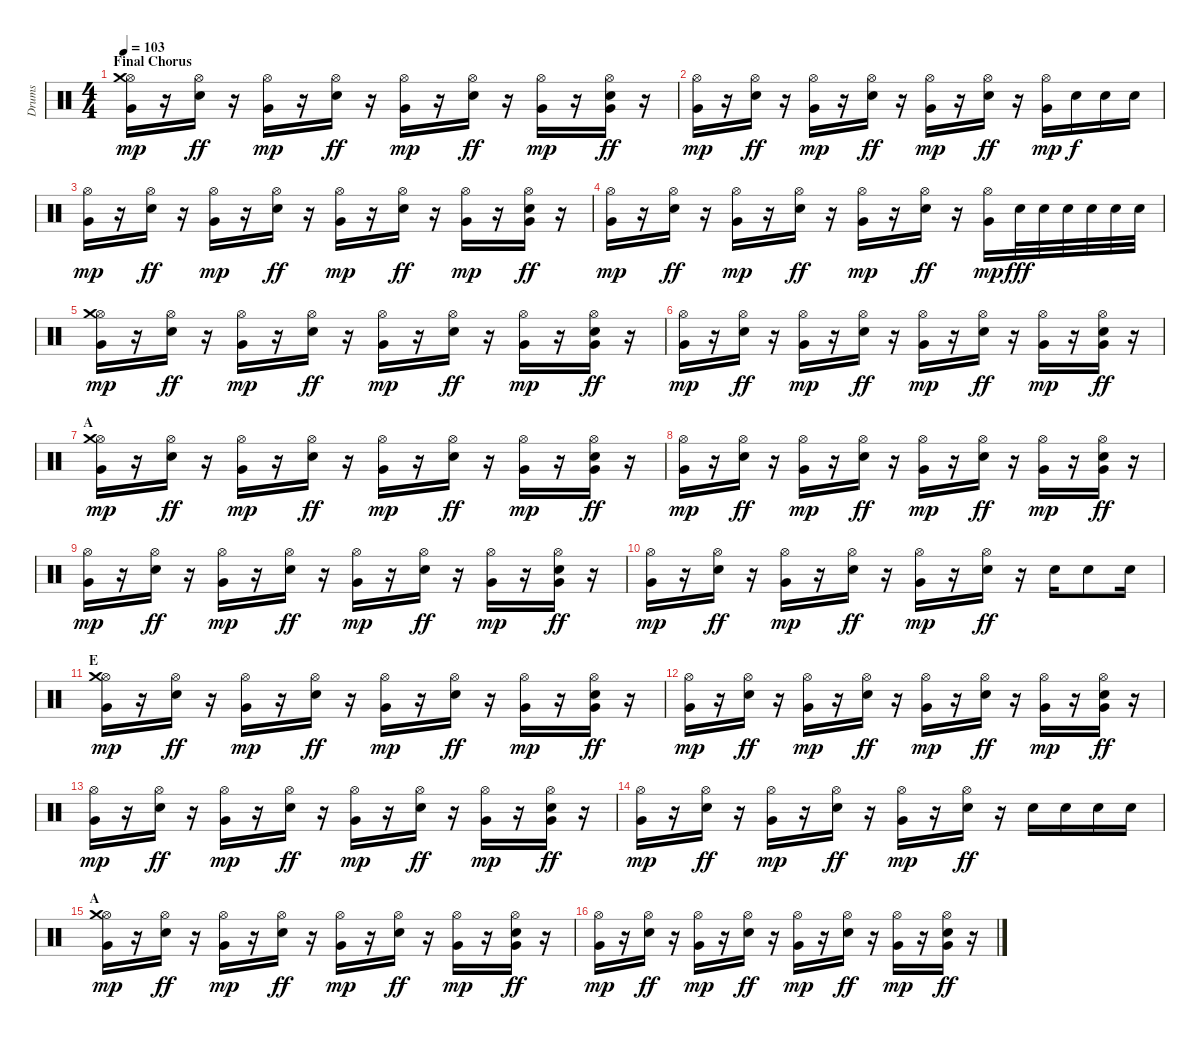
\track ("Drums" "Drums") {instrument percussion}
\staff {score}
\articulation defaults
\ts (4 4)
\section ("" "Final Chorus")
\tempo 103
\clef neutral
\ks c
("Hi-Hat (open)" "Crash medium (hit)" "Very Low Tom (hit)").16{dy mp} r.16 ("Hi-Hat (open)" "Electric Snare (hit)").16{dy ff} r.16 ("Hi-Hat (open)" "Very Low Tom (hit)").16{dy mp} r.16 ("Hi-Hat (open)" "Electric Snare (hit)").16{dy ff} r.16 ("Hi-Hat (open)" "Very Low Tom (hit)").16{dy mp} r.16 ("Hi-Hat (open)" "Electric Snare (hit)").16{dy ff} r.16 ("Hi-Hat (open)" "Very Low Tom (hit)").16{dy mp} r.16 ("Hi-Hat (open)" "Electric Snare (hit)" "Very Low Tom (hit)").16{dy ff} r.16 |
("Hi-Hat (open)" "Very Low Tom (hit)").16{dy mp} r.16 ("Hi-Hat (open)" "Electric Snare (hit)").16{dy ff} r.16 ("Hi-Hat (open)" "Very Low Tom (hit)").16{dy mp} r.16 ("Hi-Hat (open)" "Electric Snare (hit)").16{dy ff} r.16 ("Hi-Hat (open)" "Very Low Tom (hit)").16{dy mp} r.16 ("Hi-Hat (open)" "Electric Snare (hit)").16{dy ff} r.16 ("Hi-Hat (open)" "Very Low Tom (hit)").16{dy mp} "Electric Snare (hit)".16{dy f} "Electric Snare (hit)".16 "Electric Snare (hit)".16 |
("Hi-Hat (open)" "Very Low Tom (hit)").16{dy mp} r.16 ("Hi-Hat (open)" "Electric Snare (hit)").16{dy ff} r.16 ("Hi-Hat (open)" "Very Low Tom (hit)").16{dy mp} r.16 ("Hi-Hat (open)" "Electric Snare (hit)").16{dy ff} r.16 ("Hi-Hat (open)" "Very Low Tom (hit)").16{dy mp} r.16 ("Hi-Hat (open)" "Electric Snare (hit)").16{dy ff} r.16 ("Hi-Hat (open)" "Very Low Tom (hit)").16{dy mp} r.16 ("Hi-Hat (open)" "Electric Snare (hit)" "Very Low Tom (hit)").16{dy ff} r.16 |
("Hi-Hat (open)" "Very Low Tom (hit)").16{dy mp} r.16 ("Hi-Hat (open)" "Electric Snare (hit)").16{dy ff} r.16 ("Hi-Hat (open)" "Very Low Tom (hit)").16{dy mp} r.16 ("Hi-Hat (open)" "Electric Snare (hit)").16{dy ff} r.16 ("Hi-Hat (open)" "Very Low Tom (hit)").16{dy mp} r.16 ("Hi-Hat (open)" "Electric Snare (hit)").16{dy ff} r.16 ("Hi-Hat (open)" "Very Low Tom (hit)").16{dy mp} "Electric Snare (hit)".32{dy fff} "Electric Snare (hit)".32 "Electric Snare (hit)".32 "Electric Snare (hit)".32 "Electric Snare (hit)".32 "Electric Snare (hit)".32 |
("Hi-Hat (open)" "Crash medium (hit)" "Very Low Tom (hit)").16{dy mp} r.16 ("Hi-Hat (open)" "Electric Snare (hit)").16{dy ff} r.16 ("Hi-Hat (open)" "Very Low Tom (hit)").16{dy mp} r.16 ("Hi-Hat (open)" "Electric Snare (hit)").16{dy ff} r.16 ("Hi-Hat (open)" "Very Low Tom (hit)").16{dy mp} r.16 ("Hi-Hat (open)" "Electric Snare (hit)").16{dy ff} r.16 ("Hi-Hat (open)" "Very Low Tom (hit)").16{dy mp} r.16 ("Hi-Hat (open)" "Electric Snare (hit)" "Very Low Tom (hit)").16{dy ff} r.16 |
("Hi-Hat (open)" "Very Low Tom (hit)").16{dy mp} r.16 ("Hi-Hat (open)" "Electric Snare (hit)").16{dy ff} r.16 ("Hi-Hat (open)" "Very Low Tom (hit)").16{dy mp} r.16 ("Hi-Hat (open)" "Electric Snare (hit)").16{dy ff} r.16 ("Hi-Hat (open)" "Very Low Tom (hit)").16{dy mp} r.16 ("Hi-Hat (open)" "Electric Snare (hit)").16{dy ff} r.16 ("Hi-Hat (open)" "Very Low Tom (hit)").16{dy mp} r.16 ("Hi-Hat (open)" "Electric Snare (hit)" "Very Low Tom (hit)").16{dy ff} r.16 |
\section ("" "A")
("Hi-Hat (open)" "Crash medium (hit)" "Very Low Tom (hit)").16{dy mp} r.16 ("Hi-Hat (open)" "Electric Snare (hit)").16{dy ff} r.16 ("Hi-Hat (open)" "Very Low Tom (hit)").16{dy mp} r.16 ("Hi-Hat (open)" "Electric Snare (hit)").16{dy ff} r.16 ("Hi-Hat (open)" "Very Low Tom (hit)").16{dy mp} r.16 ("Hi-Hat (open)" "Electric Snare (hit)").16{dy ff} r.16 ("Hi-Hat (open)" "Very Low Tom (hit)").16{dy mp} r.16 ("Hi-Hat (open)" "Electric Snare (hit)" "Very Low Tom (hit)").16{dy ff} r.16 |
("Hi-Hat (open)" "Very Low Tom (hit)").16{dy mp} r.16 ("Hi-Hat (open)" "Electric Snare (hit)").16{dy ff} r.16 ("Hi-Hat (open)" "Very Low Tom (hit)").16{dy mp} r.16 ("Hi-Hat (open)" "Electric Snare (hit)").16{dy ff} r.16 ("Hi-Hat (open)" "Very Low Tom (hit)").16{dy mp} r.16 ("Hi-Hat (open)" "Electric Snare (hit)").16{dy ff} r.16 ("Hi-Hat (open)" "Very Low Tom (hit)").16{dy mp} r.16 ("Hi-Hat (open)" "Electric Snare (hit)" "Very Low Tom (hit)").16{dy ff} r.16 |
("Hi-Hat (open)" "Very Low Tom (hit)").16{dy mp} r.16 ("Hi-Hat (open)" "Electric Snare (hit)").16{dy ff} r.16 ("Hi-Hat (open)" "Very Low Tom (hit)").16{dy mp} r.16 ("Hi-Hat (open)" "Electric Snare (hit)").16{dy ff} r.16 ("Hi-Hat (open)" "Very Low Tom (hit)").16{dy mp} r.16 ("Hi-Hat (open)" "Electric Snare (hit)").16{dy ff} r.16 ("Hi-Hat (open)" "Very Low Tom (hit)").16{dy mp} r.16 ("Hi-Hat (open)" "Electric Snare (hit)" "Very Low Tom (hit)").16{dy ff} r.16 |
("Hi-Hat (open)" "Very Low Tom (hit)").16{dy mp} r.16 ("Hi-Hat (open)" "Electric Snare (hit)").16{dy ff} r.16 ("Hi-Hat (open)" "Very Low Tom (hit)").16{dy mp} r.16 ("Hi-Hat (open)" "Electric Snare (hit)").16{dy ff} r.16 ("Hi-Hat (open)" "Very Low Tom (hit)").16{dy mp} r.16 ("Hi-Hat (open)" "Electric Snare (hit)").16{dy ff} r.16 "Electric Snare (hit)".16 "Electric Snare (hit)".8 "Electric Snare (hit)".16 |
\section ("" "E")
("Hi-Hat (open)" "Crash medium (hit)" "Very Low Tom (hit)").16{dy mp} r.16 ("Hi-Hat (open)" "Electric Snare (hit)").16{dy ff} r.16 ("Hi-Hat (open)" "Very Low Tom (hit)").16{dy mp} r.16 ("Hi-Hat (open)" "Electric Snare (hit)").16{dy ff} r.16 ("Hi-Hat (open)" "Very Low Tom (hit)").16{dy mp} r.16 ("Hi-Hat (open)" "Electric Snare (hit)").16{dy ff} r.16 ("Hi-Hat (open)" "Very Low Tom (hit)").16{dy mp} r.16 ("Hi-Hat (open)" "Electric Snare (hit)" "Very Low Tom (hit)").16{dy ff} r.16 |
("Hi-Hat (open)" "Very Low Tom (hit)").16{dy mp} r.16 ("Hi-Hat (open)" "Electric Snare (hit)").16{dy ff} r.16 ("Hi-Hat (open)" "Very Low Tom (hit)").16{dy mp} r.16 ("Hi-Hat (open)" "Electric Snare (hit)").16{dy ff} r.16 ("Hi-Hat (open)" "Very Low Tom (hit)").16{dy mp} r.16 ("Hi-Hat (open)" "Electric Snare (hit)").16{dy ff} r.16 ("Hi-Hat (open)" "Very Low Tom (hit)").16{dy mp} r.16 ("Hi-Hat (open)" "Electric Snare (hit)" "Very Low Tom (hit)").16{dy ff} r.16 |
("Hi-Hat (open)" "Very Low Tom (hit)").16{dy mp} r.16 ("Hi-Hat (open)" "Electric Snare (hit)").16{dy ff} r.16 ("Hi-Hat (open)" "Very Low Tom (hit)").16{dy mp} r.16 ("Hi-Hat (open)" "Electric Snare (hit)").16{dy ff} r.16 ("Hi-Hat (open)" "Very Low Tom (hit)").16{dy mp} r.16 ("Hi-Hat (open)" "Electric Snare (hit)").16{dy ff} r.16 ("Hi-Hat (open)" "Very Low Tom (hit)").16{dy mp} r.16 ("Hi-Hat (open)" "Electric Snare (hit)" "Very Low Tom (hit)").16{dy ff} r.16 |
("Hi-Hat (open)" "Very Low Tom (hit)").16{dy mp} r.16 ("Hi-Hat (open)" "Electric Snare (hit)").16{dy ff} r.16 ("Hi-Hat (open)" "Very Low Tom (hit)").16{dy mp} r.16 ("Hi-Hat (open)" "Electric Snare (hit)").16{dy ff} r.16 ("Hi-Hat (open)" "Very Low Tom (hit)").16{dy mp} r.16 ("Hi-Hat (open)" "Electric Snare (hit)").16{dy ff} r.16 "Electric Snare (hit)".16 "Electric Snare (hit)".16 "Electric Snare (hit)".16 "Electric Snare (hit)".16 |
\section ("" "A")
("Hi-Hat (open)" "Crash medium (hit)" "Very Low Tom (hit)").16{dy mp} r.16 ("Hi-Hat (open)" "Electric Snare (hit)").16{dy ff} r.16 ("Hi-Hat (open)" "Very Low Tom (hit)").16{dy mp} r.16 ("Hi-Hat (open)" "Electric Snare (hit)").16{dy ff} r.16 ("Hi-Hat (open)" "Very Low Tom (hit)").16{dy mp} r.16 ("Hi-Hat (open)" "Electric Snare (hit)").16{dy ff} r.16 ("Hi-Hat (open)" "Very Low Tom (hit)").16{dy mp} r.16 ("Hi-Hat (open)" "Electric Snare (hit)" "Very Low Tom (hit)").16{dy ff} r.16 |
("Hi-Hat (open)" "Very Low Tom (hit)").16{dy mp} r.16 ("Hi-Hat (open)" "Electric Snare (hit)").16{dy ff} r.16 ("Hi-Hat (open)" "Very Low Tom (hit)").16{dy mp} r.16 ("Hi-Hat (open)" "Electric Snare (hit)").16{dy ff} r.16 ("Hi-Hat (open)" "Very Low Tom (hit)").16{dy mp} r.16 ("Hi-Hat (open)" "Electric Snare (hit)").16{dy ff} r.16 ("Hi-Hat (open)" "Very Low Tom (hit)").16{dy mp} r.16 ("Hi-Hat (open)" "Electric Snare (hit)" "Very Low Tom (hit)").16{dy ff} r.16
